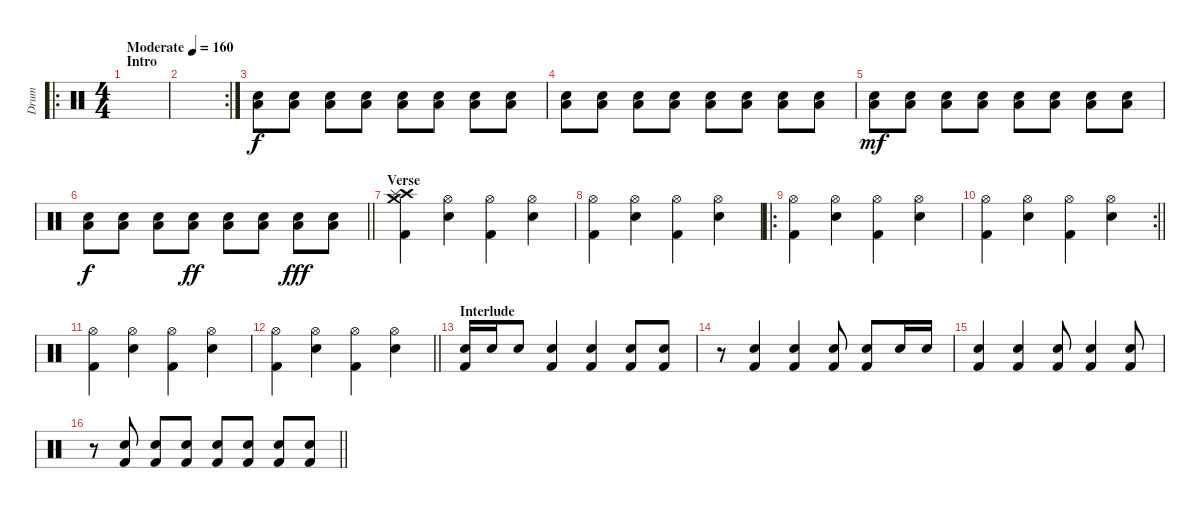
\track ("Drum" "Drum") {instrument percussion}
\staff {score}
\articulation defaults
\ro
\ts (4 4)
\section ("" "Intro")
\tempo (160 "Moderate")
\clef neutral
\ks c
|
\rc 2
|
("Low Floor Tom (hit)" "Electric Snare (hit)").8 ("Low Floor Tom (hit)" "Electric Snare (hit)").8 ("Low Floor Tom (hit)" "Electric Snare (hit)").8 ("Low Floor Tom (hit)" "Electric Snare (hit)").8 ("Low Floor Tom (hit)" "Electric Snare (hit)").8 ("Low Floor Tom (hit)" "Electric Snare (hit)").8 ("Low Floor Tom (hit)" "Electric Snare (hit)").8 ("Low Floor Tom (hit)" "Electric Snare (hit)").8 |
("Low Floor Tom (hit)" "Electric Snare (hit)").8 ("Low Floor Tom (hit)" "Electric Snare (hit)").8 ("Low Floor Tom (hit)" "Electric Snare (hit)").8 ("Low Floor Tom (hit)" "Electric Snare (hit)").8 ("Low Floor Tom (hit)" "Electric Snare (hit)").8 ("Low Floor Tom (hit)" "Electric Snare (hit)").8 ("Low Floor Tom (hit)" "Electric Snare (hit)").8 ("Low Floor Tom (hit)" "Electric Snare (hit)").8 |
("Low Floor Tom (hit)" "Electric Snare (hit)").8{dy mf} ("Low Floor Tom (hit)" "Electric Snare (hit)").8 ("Low Floor Tom (hit)" "Electric Snare (hit)").8 ("Low Floor Tom (hit)" "Electric Snare (hit)").8 ("Low Floor Tom (hit)" "Electric Snare (hit)").8 ("Low Floor Tom (hit)" "Electric Snare (hit)").8 ("Low Floor Tom (hit)" "Electric Snare (hit)").8 ("Low Floor Tom (hit)" "Electric Snare (hit)").8 |
\barLineRight lightlight
("Low Floor Tom (hit)" "Electric Snare (hit)").8{dy f} ("Low Floor Tom (hit)" "Electric Snare (hit)").8 ("Low Floor Tom (hit)" "Electric Snare (hit)").8 ("Low Floor Tom (hit)" "Electric Snare (hit)").8{dy ff} ("Low Floor Tom (hit)" "Electric Snare (hit)").8 ("Low Floor Tom (hit)" "Electric Snare (hit)").8 ("Low Floor Tom (hit)" "Electric Snare (hit)").8{dy fff} ("Low Floor Tom (hit)" "Electric Snare (hit)").8 |
\section ("" "Verse ")
("Crash high (hit)" "Crash medium (hit)" "Splash (hit)" "Kick (hit) 2").4 ("Hi-Hat (open)" "Electric Snare (hit)").4 ("Hi-Hat (open)" "Kick (hit) 2").4 ("Hi-Hat (open)" "Electric Snare (hit)").4 |
("Hi-Hat (open)" "Kick (hit) 2").4 ("Hi-Hat (open)" "Electric Snare (hit)").4 ("Hi-Hat (open)" "Kick (hit) 2").4 ("Hi-Hat (open)" "Electric Snare (hit)").4 |
\ro
("Hi-Hat (open)" "Kick (hit) 2").4 ("Hi-Hat (open)" "Electric Snare (hit)").4 ("Hi-Hat (open)" "Kick (hit) 2").4 ("Hi-Hat (open)" "Electric Snare (hit)").4 |
\rc 2
\barLineRight lightlight
("Hi-Hat (open)" "Kick (hit) 2").4 ("Hi-Hat (open)" "Electric Snare (hit)").4 ("Hi-Hat (open)" "Kick (hit) 2").4 ("Hi-Hat (open)" "Electric Snare (hit)").4 |
("Hi-Hat (open)" "Kick (hit) 2").4 ("Hi-Hat (open)" "Electric Snare (hit)").4 ("Hi-Hat (open)" "Kick (hit) 2").4 ("Hi-Hat (open)" "Electric Snare (hit)").4 |
\barLineRight lightlight
("Hi-Hat (open)" "Kick (hit) 2").4 ("Hi-Hat (open)" "Electric Snare (hit)").4 ("Hi-Hat (open)" "Kick (hit) 2").4 ("Hi-Hat (open)" "Electric Snare (hit)").4 |
\section ("" "Interlude")
("Electric Snare (hit)" "Kick (hit) 2").16 "Electric Snare (hit)".16 "Electric Snare (hit)".8 ("Electric Snare (hit)" "Kick (hit) 2").4 ("Electric Snare (hit)" "Kick (hit) 2").4 ("Electric Snare (hit)" "Kick (hit) 2").8 ("Electric Snare (hit)" "Kick (hit) 2").8 |
r.8 ("Electric Snare (hit)" "Kick (hit) 2").4 ("Electric Snare (hit)" "Kick (hit) 2").4 ("Electric Snare (hit)" "Kick (hit) 2").8 ("Electric Snare (hit)" "Kick (hit) 2").8 "Electric Snare (hit)".16 "Electric Snare (hit)".16 |
("Electric Snare (hit)" "Kick (hit) 2").4 ("Electric Snare (hit)" "Kick (hit) 2").4 ("Electric Snare (hit)" "Kick (hit) 2").8 ("Electric Snare (hit)" "Kick (hit) 2").4 ("Electric Snare (hit)" "Kick (hit) 2").8 |
\barLineRight lightlight
r.8 ("Electric Snare (hit)" "Kick (hit) 2").8 ("Electric Snare (hit)" "Kick (hit) 2").8 ("Electric Snare (hit)" "Kick (hit) 2").8 ("Electric Snare (hit)" "Kick (hit) 2").8 ("Electric Snare (hit)" "Kick (hit) 2").8 ("Electric Snare (hit)" "Kick (hit) 2").8 ("Electric Snare (hit)" "Kick (hit) 2").8
